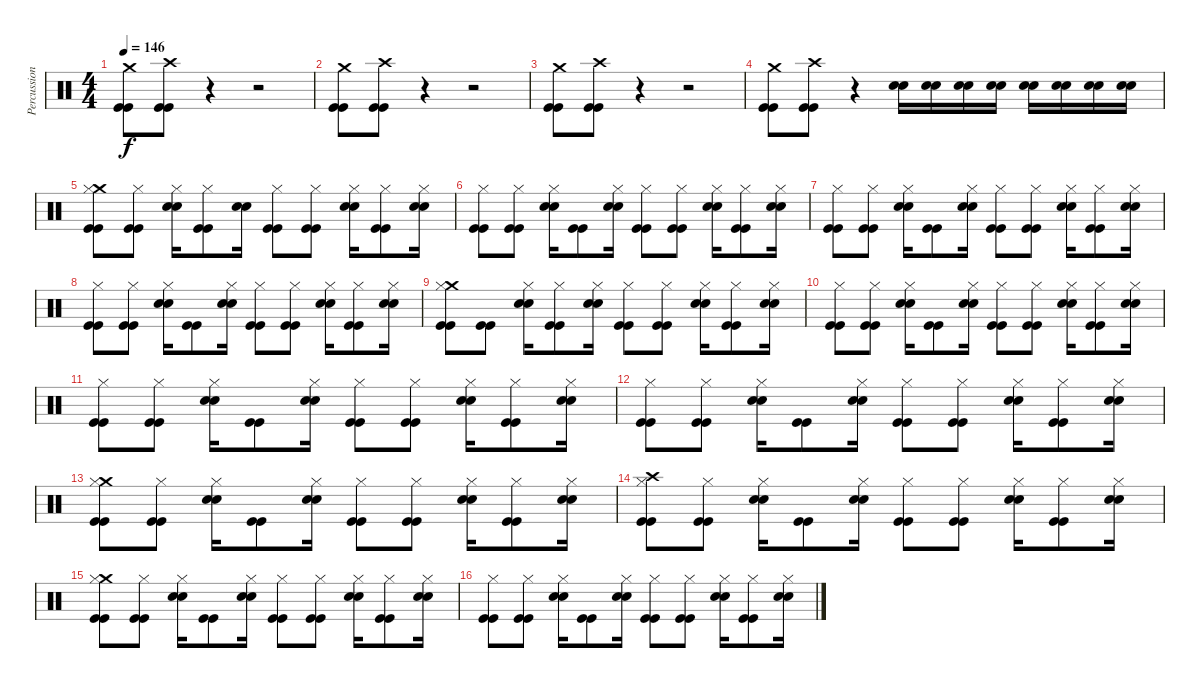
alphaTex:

\track ("Percussion" "Percussion") {instrument percussion}
\staff {score}
\articulation defaults
\ts (4 4)
\tempo 146
\clef neutral
\ks c
("Crash medium (hit)" "Kick (hit)" "Kick (hit)").8{dy f} ("Crash high (hit)" "Kick (hit)" "Kick (hit)").8 r.4 r.2 |
("Crash medium (hit)" "Kick (hit)" "Kick (hit)").8 ("Crash high (hit)" "Kick (hit)" "Kick (hit)").8 r.4 r.2 |
("Crash medium (hit)" "Kick (hit)" "Kick (hit)").8 ("Crash high (hit)" "Kick (hit)" "Kick (hit)").8 r.4 r.2 |
("Crash medium (hit)" "Kick (hit)" "Kick (hit)").8 ("Crash high (hit)" "Kick (hit)" "Kick (hit)").8 r.4 ("Snare (hit) 2" "Snare (hit) 2").16 ("Snare (hit) 2" "Snare (hit) 2").16 ("Snare (hit) 2" "Snare (hit) 2").16 ("Snare (hit) 2" "Snare (hit) 2").16 ("Snare (hit) 2" "Snare (hit) 2").16 ("Snare (hit) 2" "Snare (hit) 2").16 ("Snare (hit) 2" "Snare (hit) 2").16 ("Snare (hit) 2" "Snare (hit) 2").16 |
("Crash medium (hit)" "Hi-Hat (closed)" "Kick (hit)" "Kick (hit)").8 ("Hi-Hat (closed)" "Kick (hit)" "Kick (hit)").8 ("Snare (hit) 2" "Snare (hit) 2" "Hi-Hat (closed)").16 ("Hi-Hat (closed)" "Kick (hit)" "Kick (hit)").8 ("Snare (hit) 2" "Snare (hit) 2").16 ("Hi-Hat (closed)" "Kick (hit)" "Kick (hit)").8 ("Hi-Hat (closed)" "Kick (hit)" "Kick (hit)").8 ("Snare (hit) 2" "Snare (hit) 2" "Hi-Hat (closed)").16 ("Hi-Hat (closed)" "Kick (hit)" "Kick (hit)").8 ("Snare (hit) 2" "Snare (hit) 2" "Hi-Hat (closed)").16 |
("Hi-Hat (closed)" "Kick (hit)" "Kick (hit)").8 ("Hi-Hat (closed)" "Kick (hit)" "Kick (hit)").8 ("Snare (hit) 2" "Snare (hit) 2" "Hi-Hat (closed)").16 ("Kick (hit)" "Kick (hit)").8 ("Snare (hit) 2" "Snare (hit) 2" "Hi-Hat (closed)").16 ("Hi-Hat (closed)" "Kick (hit)" "Kick (hit)").8 ("Hi-Hat (closed)" "Kick (hit)" "Kick (hit)").8 ("Snare (hit) 2" "Snare (hit) 2" "Hi-Hat (closed)").16 ("Hi-Hat (closed)" "Kick (hit)" "Kick (hit)").8 ("Snare (hit) 2" "Snare (hit) 2" "Hi-Hat (closed)").16 |
("Hi-Hat (closed)" "Kick (hit)" "Kick (hit)").8 ("Hi-Hat (closed)" "Kick (hit)" "Kick (hit)").8 ("Snare (hit) 2" "Snare (hit) 2" "Hi-Hat (closed)").16 ("Kick (hit)" "Kick (hit)").8 ("Snare (hit) 2" "Snare (hit) 2" "Hi-Hat (closed)").16 ("Hi-Hat (closed)" "Kick (hit)" "Kick (hit)").8 ("Hi-Hat (closed)" "Kick (hit)" "Kick (hit)").8 ("Snare (hit) 2" "Snare (hit) 2" "Hi-Hat (closed)").16 ("Hi-Hat (closed)" "Kick (hit)" "Kick (hit)").8 ("Snare (hit) 2" "Snare (hit) 2" "Hi-Hat (closed)").16 |
("Hi-Hat (closed)" "Kick (hit)" "Kick (hit)").8 ("Hi-Hat (closed)" "Kick (hit)" "Kick (hit)").8 ("Snare (hit) 2" "Snare (hit) 2" "Hi-Hat (closed)").16 ("Kick (hit)" "Kick (hit)").8 ("Snare (hit) 2" "Snare (hit) 2" "Hi-Hat (closed)").16 ("Hi-Hat (closed)" "Kick (hit)" "Kick (hit)").8 ("Hi-Hat (closed)" "Kick (hit)" "Kick (hit)").8 ("Snare (hit) 2" "Snare (hit) 2" "Hi-Hat (closed)").16 ("Hi-Hat (closed)" "Kick (hit)" "Kick (hit)").8 ("Snare (hit) 2" "Snare (hit) 2" "Hi-Hat (closed)").16 |
("Crash medium (hit)" "Hi-Hat (closed)" "Kick (hit)" "Kick (hit)").8 ("Kick (hit)" "Kick (hit)").8 ("Snare (hit) 2" "Snare (hit) 2" "Hi-Hat (closed)").16 ("Hi-Hat (closed)" "Kick (hit)" "Kick (hit)").8 ("Snare (hit) 2" "Snare (hit) 2" "Hi-Hat (closed)").16 ("Hi-Hat (closed)" "Kick (hit)" "Kick (hit)").8 ("Hi-Hat (closed)" "Kick (hit)" "Kick (hit)").8 ("Snare (hit) 2" "Snare (hit) 2" "Hi-Hat (closed)").16 ("Hi-Hat (closed)" "Kick (hit)" "Kick (hit)").8 ("Snare (hit) 2" "Snare (hit) 2" "Hi-Hat (closed)").16 |
("Hi-Hat (closed)" "Kick (hit)" "Kick (hit)").8 ("Hi-Hat (closed)" "Kick (hit)" "Kick (hit)").8 ("Snare (hit) 2" "Snare (hit) 2" "Hi-Hat (closed)").16 ("Kick (hit)" "Kick (hit)").8 ("Snare (hit) 2" "Snare (hit) 2" "Hi-Hat (closed)").16 ("Hi-Hat (closed)" "Kick (hit)" "Kick (hit)").8 ("Hi-Hat (closed)" "Kick (hit)" "Kick (hit)").8 ("Snare (hit) 2" "Snare (hit) 2" "Hi-Hat (closed)").16 ("Hi-Hat (closed)" "Kick (hit)" "Kick (hit)").8 ("Snare (hit) 2" "Snare (hit) 2" "Hi-Hat (closed)").16 |
("Hi-Hat (closed)" "Kick (hit)" "Kick (hit)").8 ("Hi-Hat (closed)" "Kick (hit)" "Kick (hit)").8 ("Snare (hit) 2" "Snare (hit) 2" "Hi-Hat (closed)").16 ("Kick (hit)" "Kick (hit)").8 ("Snare (hit) 2" "Snare (hit) 2" "Hi-Hat (closed)").16 ("Hi-Hat (closed)" "Kick (hit)" "Kick (hit)").8 ("Hi-Hat (closed)" "Kick (hit)" "Kick (hit)").8 ("Snare (hit) 2" "Snare (hit) 2" "Hi-Hat (closed)").16 ("Hi-Hat (closed)" "Kick (hit)" "Kick (hit)").8 ("Snare (hit) 2" "Snare (hit) 2" "Hi-Hat (closed)").16 |
("Hi-Hat (closed)" "Kick (hit)" "Kick (hit)").8 ("Hi-Hat (closed)" "Kick (hit)" "Kick (hit)").8 ("Snare (hit) 2" "Snare (hit) 2" "Hi-Hat (closed)").16 ("Kick (hit)" "Kick (hit)").8 ("Snare (hit) 2" "Snare (hit) 2" "Hi-Hat (closed)").16 ("Hi-Hat (closed)" "Kick (hit)" "Kick (hit)").8 ("Hi-Hat (closed)" "Kick (hit)" "Kick (hit)").8 ("Snare (hit) 2" "Snare (hit) 2" "Hi-Hat (closed)").16 ("Hi-Hat (closed)" "Kick (hit)" "Kick (hit)").8 ("Snare (hit) 2" "Snare (hit) 2" "Hi-Hat (closed)").16 |
("Crash medium (hit)" "Hi-Hat (closed)" "Kick (hit)" "Kick (hit)").8 ("Hi-Hat (closed)" "Kick (hit)" "Kick (hit)").8 ("Snare (hit) 2" "Snare (hit) 2" "Hi-Hat (closed)").16 ("Kick (hit)" "Kick (hit)").8 ("Snare (hit) 2" "Snare (hit) 2" "Hi-Hat (closed)").16 ("Hi-Hat (closed)" "Kick (hit)" "Kick (hit)").8 ("Hi-Hat (closed)" "Kick (hit)" "Kick (hit)").8 ("Snare (hit) 2" "Snare (hit) 2" "Hi-Hat (closed)").16 ("Hi-Hat (closed)" "Kick (hit)" "Kick (hit)").8 ("Snare (hit) 2" "Snare (hit) 2" "Hi-Hat (closed)").16 |
("Crash high (hit)" "Hi-Hat (closed)" "Kick (hit)" "Kick (hit)").8 ("Hi-Hat (closed)" "Kick (hit)" "Kick (hit)").8 ("Snare (hit) 2" "Snare (hit) 2" "Hi-Hat (closed)").16 ("Kick (hit)" "Kick (hit)").8 ("Snare (hit) 2" "Snare (hit) 2" "Hi-Hat (closed)").16 ("Hi-Hat (closed)" "Kick (hit)" "Kick (hit)").8 ("Hi-Hat (closed)" "Kick (hit)" "Kick (hit)").8 ("Snare (hit) 2" "Snare (hit) 2" "Hi-Hat (closed)").16 ("Hi-Hat (closed)" "Kick (hit)" "Kick (hit)").8 ("Snare (hit) 2" "Snare (hit) 2" "Hi-Hat (closed)").16 |
("Crash medium (hit)" "Hi-Hat (closed)" "Kick (hit)" "Kick (hit)").8 ("Hi-Hat (closed)" "Kick (hit)" "Kick (hit)").8 ("Snare (hit) 2" "Snare (hit) 2" "Hi-Hat (closed)").16 ("Kick (hit)" "Kick (hit)").8 ("Snare (hit) 2" "Snare (hit) 2" "Hi-Hat (closed)").16 ("Hi-Hat (closed)" "Kick (hit)" "Kick (hit)").8 ("Hi-Hat (closed)" "Kick (hit)" "Kick (hit)").8 ("Snare (hit) 2" "Snare (hit) 2" "Hi-Hat (closed)").16 ("Hi-Hat (closed)" "Kick (hit)" "Kick (hit)").8 ("Snare (hit) 2" "Snare (hit) 2" "Hi-Hat (closed)").16 |
("Hi-Hat (closed)" "Kick (hit)" "Kick (hit)").8 ("Hi-Hat (closed)" "Kick (hit)" "Kick (hit)").8 ("Snare (hit) 2" "Snare (hit) 2" "Hi-Hat (closed)").16 ("Kick (hit)" "Kick (hit)").8 ("Snare (hit) 2" "Snare (hit) 2" "Hi-Hat (closed)").16 ("Hi-Hat (closed)" "Kick (hit)" "Kick (hit)").8 ("Hi-Hat (closed)" "Kick (hit)" "Kick (hit)").8 ("Snare (hit) 2" "Snare (hit) 2" "Hi-Hat (closed)").16 ("Hi-Hat (closed)" "Kick (hit)" "Kick (hit)").8 ("Snare (hit) 2" "Snare (hit) 2" "Hi-Hat (closed)").16
